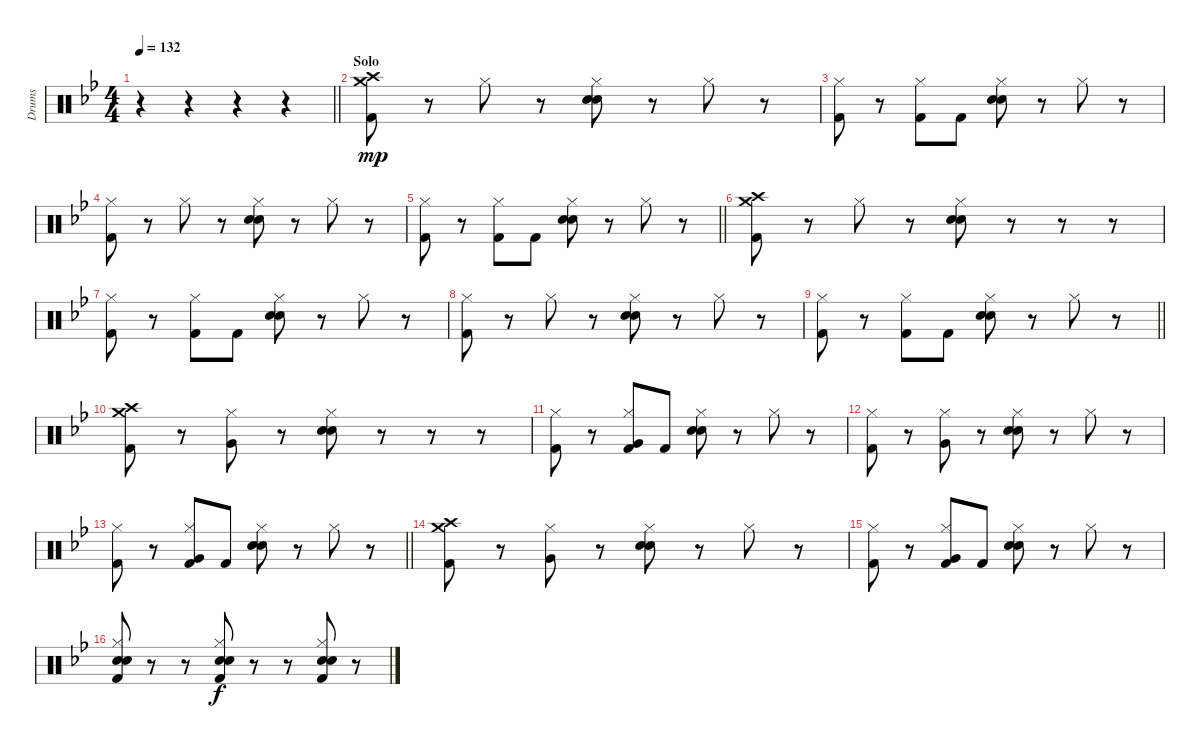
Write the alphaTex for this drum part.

\track ("Drums" "Drums") {instrument percussion}
\staff
\articulation defaults
\ts (4 4)
\tempo 132
\clef neutral
\barLineRight lightlight
\ks bb
r.4{dy mp} r.4 r.4 r.4 |
\section ("" "Solo")
("Crash high (hit)" "Crash medium (hit)" "Kick (hit) 2").8 r.8 "Hi-Hat (closed)".8 r.8 ("Hi-Hat (closed)" "Electric Snare (hit)" "Electric Snare (hit)").8 r.8 "Hi-Hat (closed)".8 r.8 |
("Hi-Hat (closed)" "Kick (hit) 2").8 r.8 ("Hi-Hat (closed)" "Kick (hit) 2").8 "Kick (hit) 2".8 ("Hi-Hat (closed)" "Electric Snare (hit)" "Electric Snare (hit)").8 r.8 "Hi-Hat (closed)".8 r.8 |
("Hi-Hat (closed)" "Kick (hit) 2").8 r.8 "Hi-Hat (closed)".8 r.8 ("Hi-Hat (closed)" "Electric Snare (hit)" "Electric Snare (hit)").8 r.8 "Hi-Hat (closed)".8 r.8 |
\barLineRight lightlight
("Hi-Hat (closed)" "Kick (hit) 2").8 r.8 ("Hi-Hat (closed)" "Kick (hit) 2").8 "Kick (hit) 2".8 ("Hi-Hat (closed)" "Electric Snare (hit)" "Electric Snare (hit)").8 r.8 "Hi-Hat (closed)".8 r.8 |
("Crash high (hit)" "Crash medium (hit)" "Kick (hit) 2").8 r.8 "Hi-Hat (closed)".8 r.8 ("Hi-Hat (closed)" "Electric Snare (hit)" "Electric Snare (hit)").8 r.8 r.8 r.8 |
("Hi-Hat (closed)" "Kick (hit) 2").8 r.8 ("Hi-Hat (closed)" "Kick (hit) 2").8 "Kick (hit) 2".8 ("Hi-Hat (closed)" "Electric Snare (hit)" "Electric Snare (hit)").8 r.8 "Hi-Hat (closed)".8 r.8 |
("Hi-Hat (closed)" "Kick (hit) 2").8 r.8 "Hi-Hat (closed)".8 r.8 ("Hi-Hat (closed)" "Electric Snare (hit)" "Electric Snare (hit)").8 r.8 "Hi-Hat (closed)".8 r.8 |
\barLineRight lightlight
("Hi-Hat (closed)" "Kick (hit) 2").8 r.8 ("Hi-Hat (closed)" "Kick (hit) 2").8 "Kick (hit) 2".8 ("Hi-Hat (closed)" "Electric Snare (hit)" "Electric Snare (hit)").8 r.8 "Hi-Hat (closed)".8 r.8 |
("Crash high (hit)" "Crash medium (hit)" "Kick (hit) 2").8 r.8 ("Hi-Hat (closed)" "Very Low Tom (hit)").8 r.8 ("Hi-Hat (closed)" "Electric Snare (hit)" "Electric Snare (hit)").8 r.8 r.8 r.8 |
("Hi-Hat (closed)" "Kick (hit) 2").8 r.8 ("Hi-Hat (closed)" "Very Low Tom (hit)" "Kick (hit) 2").8 "Kick (hit) 2".8 ("Hi-Hat (closed)" "Electric Snare (hit)" "Electric Snare (hit)").8 r.8 "Hi-Hat (closed)".8 r.8 |
("Hi-Hat (closed)" "Kick (hit) 2").8 r.8 ("Hi-Hat (closed)" "Very Low Tom (hit)").8 r.8 ("Hi-Hat (closed)" "Electric Snare (hit)" "Electric Snare (hit)").8 r.8 "Hi-Hat (closed)".8 r.8 |
\barLineRight lightlight
("Hi-Hat (closed)" "Kick (hit) 2").8 r.8 ("Hi-Hat (closed)" "Very Low Tom (hit)" "Kick (hit) 2").8 "Kick (hit) 2".8 ("Hi-Hat (closed)" "Electric Snare (hit)" "Electric Snare (hit)").8 r.8 "Hi-Hat (closed)".8 r.8 |
("Crash high (hit)" "Crash medium (hit)" "Kick (hit) 2").8 r.8 ("Hi-Hat (closed)" "Very Low Tom (hit)").8 r.8 ("Hi-Hat (closed)" "Electric Snare (hit)" "Electric Snare (hit)").8 r.8 "Hi-Hat (closed)".8 r.8 |
("Hi-Hat (closed)" "Kick (hit) 2").8 r.8 ("Hi-Hat (closed)" "Very Low Tom (hit)" "Kick (hit) 2").8 "Kick (hit) 2".8 ("Hi-Hat (closed)" "Electric Snare (hit)" "Electric Snare (hit)").8 r.8 "Hi-Hat (closed)".8 r.8 |
("Hi-Hat (closed)" "Electric Snare (hit)" "Electric Snare (hit)" "Kick (hit) 2").8 r.8 r.8 ("Hi-Hat (closed)" "Electric Snare (hit)" "Electric Snare (hit)" "Kick (hit) 2").8{dy f} r.8 r.8 ("Hi-Hat (closed)" "Electric Snare (hit)" "Electric Snare (hit)" "Kick (hit) 2").8 r.8
